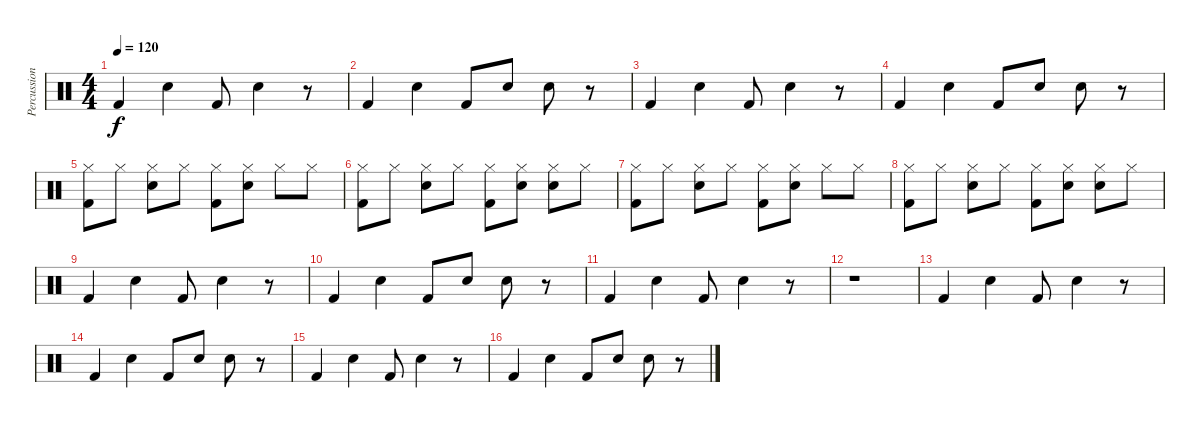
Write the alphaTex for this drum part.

\track ("Percussion" "Percussion") {instrument percussion}
\staff {score}
\articulation defaults
\ts (4 4)
\tempo 120
\clef neutral
\ks c "Kick (hit) 2".4{dy f} "Snare (hit) 2".4 "Kick (hit) 2".8 "Snare (hit) 2".4
r.8 |
"Kick (hit) 2".4 "Snare (hit) 2".4 "Kick (hit) 2".8 "Snare (hit) 2".8 "Snare (hit) 2".8 r.8 |
"Kick (hit) 2".4 "Snare (hit) 2".4 "Kick (hit) 2".8 "Snare (hit) 2".4 r.8 |
"Kick (hit) 2".4 "Snare (hit) 2".4 "Kick (hit) 2".8 "Snare (hit) 2".8 "Snare (hit) 2".8 r.8 |
("Hi-Hat (closed)" "Kick (hit) 2").8 "Hi-Hat (closed)".8 ("Hi-Hat (closed)" "Snare (hit) 2").8 "Hi-Hat (closed)".8 ("Hi-Hat (closed)" "Kick (hit) 2").8 ("Hi-Hat (closed)" "Snare (hit) 2").8 "Hi-Hat (closed)".8 "Hi-Hat (closed)".8 |
("Hi-Hat (closed)" "Kick (hit) 2").8 "Hi-Hat (closed)".8 ("Hi-Hat (closed)" "Snare (hit) 2").8 "Hi-Hat (closed)".8 ("Hi-Hat (closed)" "Kick (hit) 2").8 ("Hi-Hat (closed)" "Snare (hit) 2").8 ("Hi-Hat (closed)" "Snare (hit) 2").8 "Hi-Hat (closed)".8 |
("Hi-Hat (closed)" "Kick (hit) 2").8 "Hi-Hat (closed)".8 ("Hi-Hat (closed)" "Snare (hit) 2").8 "Hi-Hat (closed)".8 ("Hi-Hat (closed)" "Kick (hit) 2").8 ("Hi-Hat (closed)" "Snare (hit) 2").8 "Hi-Hat (closed)".8 "Hi-Hat (closed)".8 |
("Hi-Hat (closed)" "Kick (hit) 2").8 "Hi-Hat (closed)".8 ("Hi-Hat (closed)" "Snare (hit) 2").8 "Hi-Hat (closed)".8 ("Hi-Hat (closed)" "Kick (hit) 2").8 ("Hi-Hat (closed)" "Snare (hit) 2").8 ("Hi-Hat (closed)" "Snare (hit) 2").8 "Hi-Hat (closed)".8 |
"Kick (hit) 2".4 "Snare (hit) 2".4 "Kick (hit) 2".8 "Snare (hit) 2".4 r.8 |
"Kick (hit) 2".4 "Snare (hit) 2".4 "Kick (hit) 2".8 "Snare (hit) 2".8 "Snare (hit) 2".8 r.8 |
"Kick (hit) 2".4 "Snare (hit) 2".4 "Kick (hit) 2".8 "Snare (hit) 2".4 r.8 |
r.1 |
"Kick (hit) 2".4 "Snare (hit) 2".4 "Kick (hit) 2".8 "Snare (hit) 2".4 r.8 |
"Kick (hit) 2".4 "Snare (hit) 2".4 "Kick (hit) 2".8 "Snare (hit) 2".8 "Snare (hit) 2".8 r.8 |
"Kick (hit) 2".4 "Snare (hit) 2".4 "Kick (hit) 2".8 "Snare (hit) 2".4 r.8 |
"Kick (hit) 2".4 "Snare (hit) 2".4 "Kick (hit) 2".8 "Snare (hit) 2".8 "Snare (hit) 2".8 r.8
